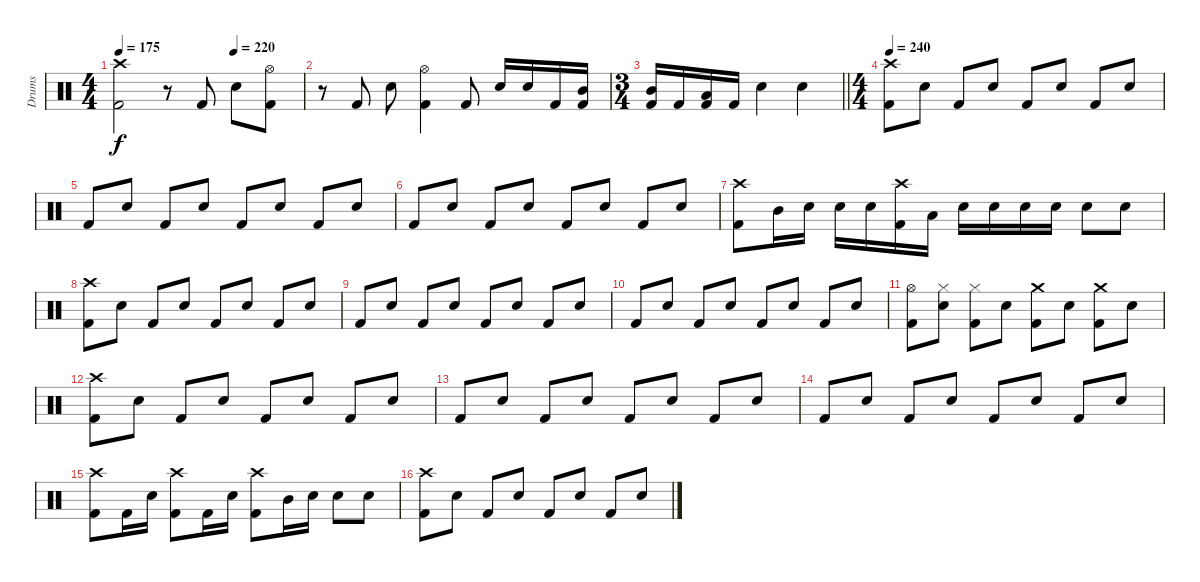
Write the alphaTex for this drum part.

\track ("Drums" "Drums") {instrument percussion}
\staff {score}
\articulation defaults
\ts (4 4)
\tempo 175
\tempo (220 0.625)
\clef neutral
\ks c
("Crash high (hit)" "Kick (hit) 2").2{dy f} r.8 "Kick (hit) 2".8 "Snare (hit) 2".8 ("Hi-Hat (open)" "Kick (hit) 2").8 |
r.8 "Kick (hit) 2".8 "Snare (hit) 2".8 ("Hi-Hat (open)" "Kick (hit) 2").4 "Kick (hit) 2".8 "Snare (hit) 2".16 "Snare (hit) 2".16 "Kick (hit) 2".16 ("Kick (hit) 2" "Mid Tom (hit)").16 |
\ts (3 4)
\barLineRight lightlight
("Kick (hit) 2" "Mid Tom (hit)").16 "Kick (hit) 2".16 ("Kick (hit) 2" "Low Tom (hit)").16 "Kick (hit) 2".16 "Snare (hit) 2".4 "Snare (hit) 2".4 |
\ts (4 4)
\tempo 240
("Crash high (hit)" "Kick (hit) 2").8 "Snare (hit) 2".8 "Kick (hit) 2".8 "Snare (hit) 2".8 "Kick (hit) 2".8 "Snare (hit) 2".8 "Kick (hit) 2".8 "Snare (hit) 2".8 |
"Kick (hit) 2".8 "Snare (hit) 2".8 "Kick (hit) 2".8 "Snare (hit) 2".8 "Kick (hit) 2".8 "Snare (hit) 2".8 "Kick (hit) 2".8 "Snare (hit) 2".8 |
"Kick (hit) 2".8 "Snare (hit) 2".8 "Kick (hit) 2".8 "Snare (hit) 2".8 "Kick (hit) 2".8 "Snare (hit) 2".8 "Kick (hit) 2".8 "Snare (hit) 2".8 |
("Crash high (hit)" "Kick (hit) 2").8 "Mid Tom (hit)".16 "Snare (hit) 2".16 "Snare (hit) 2".16 "Snare (hit) 2".16 ("Crash high (hit)" "Kick (hit) 2").16 "Low Tom (hit)".16 "Snare (hit) 2".16 "Snare (hit) 2".16 "Snare (hit) 2".16 "Snare (hit) 2".16 "Snare (hit) 2".8 "Snare (hit) 2".8 |
("Crash high (hit)" "Kick (hit) 2").8 "Snare (hit) 2".8 "Kick (hit) 2".8 "Snare (hit) 2".8 "Kick (hit) 2".8 "Snare (hit) 2".8 "Kick (hit) 2".8 "Snare (hit) 2".8 |
"Kick (hit) 2".8 "Snare (hit) 2".8 "Kick (hit) 2".8 "Snare (hit) 2".8 "Kick (hit) 2".8 "Snare (hit) 2".8 "Kick (hit) 2".8 "Snare (hit) 2".8 |
"Kick (hit) 2".8 "Snare (hit) 2".8 "Kick (hit) 2".8 "Snare (hit) 2".8 "Kick (hit) 2".8 "Snare (hit) 2".8 "Kick (hit) 2".8 "Snare (hit) 2".8 |
("Hi-Hat (open)" "Kick (hit) 2").8 ("Hi-Hat (closed)" "Snare (hit) 2").8 ("Hi-Hat (closed)" "Kick (hit) 2").8 "Snare (hit) 2".8 ("Crash medium (hit)" "Kick (hit) 2").8 "Snare (hit) 2".8 ("Crash medium (hit)" "Kick (hit) 2").8 "Snare (hit) 2".8 |
("Crash high (hit)" "Kick (hit) 2").8 "Snare (hit) 2".8 "Kick (hit) 2".8 "Snare (hit) 2".8 "Kick (hit) 2".8 "Snare (hit) 2".8 "Kick (hit) 2".8 "Snare (hit) 2".8 |
"Kick (hit) 2".8 "Snare (hit) 2".8 "Kick (hit) 2".8 "Snare (hit) 2".8 "Kick (hit) 2".8 "Snare (hit) 2".8 "Kick (hit) 2".8 "Snare (hit) 2".8 |
"Kick (hit) 2".8 "Snare (hit) 2".8 "Kick (hit) 2".8 "Snare (hit) 2".8 "Kick (hit) 2".8 "Snare (hit) 2".8 "Kick (hit) 2".8 "Snare (hit) 2".8 |
("Crash high (hit)" "Kick (hit) 2").8 "Kick (hit) 2".16 "Snare (hit) 2".16 ("Crash high (hit)" "Kick (hit) 2").8 "Kick (hit) 2".16 "Snare (hit) 2".16 ("Crash high (hit)" "Kick (hit) 2").8 "Mid Tom (hit)".16 "Snare (hit) 2".16 "Snare (hit) 2".8 "Snare (hit) 2".8 |
("Crash high (hit)" "Kick (hit) 2").8 "Snare (hit) 2".8 "Kick (hit) 2".8 "Snare (hit) 2".8 "Kick (hit) 2".8 "Snare (hit) 2".8 "Kick (hit) 2".8 "Snare (hit) 2".8
